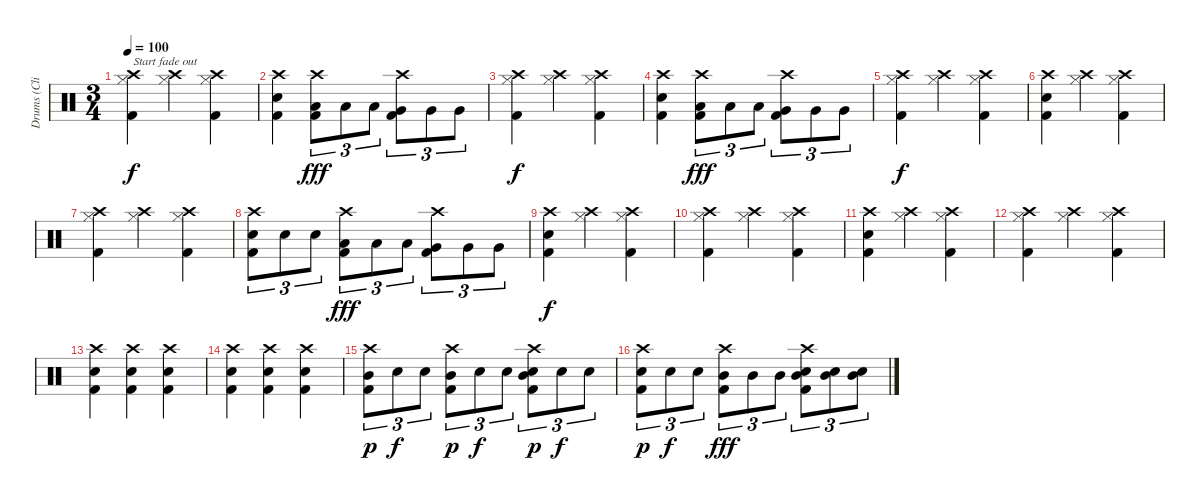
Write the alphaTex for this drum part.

\track ("Drums (Clive Bunker)" "Drums (Cli") {instrument percussion}
\staff {score}
\articulation defaults
\ts (3 4)
\tempo 100
\clef neutral
\ks c
("Crash high (hit)" "Hi-Hat (closed)" "Kick (hit) 2").4{txt "Start fade out" dy f volume 8} ("Crash high (hit)" "Hi-Hat (closed)").4 ("Crash high (hit)" "Hi-Hat (closed)" "Kick (hit) 2").4 |
("Crash high (hit)" "Snare (hit) 2" "Kick (hit) 2").4 ("Crash high (hit)" "Low Tom (hit)" "Kick (hit) 2").8{tu (3 2) dy fff} "Low Tom (hit)".8{tu (3 2)} "Low Tom (hit)".8{tu (3 2)} ("Crash high (hit)" "Very Low Tom (hit)" "Kick (hit) 2").8{tu (3 2)} "Very Low Tom (hit)".8{tu (3 2)} "Very Low Tom (hit)".8{tu (3 2)} |
("Crash high (hit)" "Hi-Hat (closed)" "Kick (hit) 2").4{dy f} ("Crash high (hit)" "Hi-Hat (closed)").4 ("Crash high (hit)" "Hi-Hat (closed)" "Kick (hit) 2").4 |
("Crash high (hit)" "Snare (hit) 2" "Kick (hit) 2").4 ("Crash high (hit)" "Low Tom (hit)" "Kick (hit) 2").8{tu (3 2) dy fff} "Low Tom (hit)".8{tu (3 2)} "Low Tom (hit)".8{tu (3 2)} ("Crash high (hit)" "Very Low Tom (hit)" "Kick (hit) 2").8{tu (3 2)} "Very Low Tom (hit)".8{tu (3 2)} "Very Low Tom (hit)".8{tu (3 2)} |
("Crash high (hit)" "Hi-Hat (closed)" "Kick (hit) 2").4{dy f} ("Crash high (hit)" "Hi-Hat (closed)").4 ("Crash high (hit)" "Hi-Hat (closed)" "Kick (hit) 2").4 |
("Crash high (hit)" "Snare (hit) 2" "Kick (hit) 2").4{volume 5} ("Crash high (hit)" "Hi-Hat (closed)").4 ("Crash high (hit)" "Hi-Hat (closed)" "Kick (hit) 2").4 |
("Crash high (hit)" "Hi-Hat (closed)" "Kick (hit) 2").4 ("Crash high (hit)" "Hi-Hat (closed)").4 ("Crash high (hit)" "Hi-Hat (closed)" "Kick (hit) 2").4 |
("Crash high (hit)" "Snare (hit) 2" "Kick (hit) 2").8{tu (3 2)} "Snare (hit) 2".8{tu (3 2)} "Snare (hit) 2".8{tu (3 2)} ("Crash high (hit)" "Low Tom (hit)" "Kick (hit) 2").8{tu (3 2) dy fff} "Low Tom (hit)".8{tu (3 2)} "Low Tom (hit)".8{tu (3 2)} ("Crash high (hit)" "Very Low Tom (hit)" "Kick (hit) 2").8{tu (3 2)} "Very Low Tom (hit)".8{tu (3 2)} "Very Low Tom (hit)".8{tu (3 2)} |
("Crash high (hit)" "Snare (hit) 2" "Kick (hit) 2").4{dy f} ("Crash high (hit)" "Hi-Hat (closed)").4 ("Crash high (hit)" "Hi-Hat (closed)" "Kick (hit) 2").4 |
("Crash high (hit)" "Hi-Hat (closed)" "Kick (hit) 2").4 ("Crash high (hit)" "Hi-Hat (closed)").4 ("Crash high (hit)" "Hi-Hat (closed)" "Kick (hit) 2").4 |
("Crash high (hit)" "Snare (hit) 2" "Kick (hit) 2").4{volume 0} ("Crash high (hit)" "Hi-Hat (closed)").4 ("Crash high (hit)" "Hi-Hat (closed)" "Kick (hit) 2").4 |
("Crash high (hit)" "Hi-Hat (closed)" "Kick (hit) 2").4 ("Crash high (hit)" "Hi-Hat (closed)").4 ("Crash high (hit)" "Hi-Hat (closed)" "Kick (hit) 2").4 |
("Crash high (hit)" "Snare (hit) 2" "Kick (hit) 2").4 ("Crash high (hit)" "Snare (hit) 2" "Kick (hit) 2").4 ("Crash high (hit)" "Snare (hit) 2" "Kick (hit) 2").4 |
("Crash high (hit)" "Snare (hit) 2" "Kick (hit) 2").4 ("Crash high (hit)" "Snare (hit) 2" "Kick (hit) 2").4 ("Crash high (hit)" "Snare (hit) 2" "Kick (hit) 2").4 |
("Crash high (hit)" "Mid Tom (hit)" "Kick (hit) 2").8{tu (3 2) dy p} "Snare (hit) 2".8{tu (3 2) dy f} "Snare (hit) 2".8{tu (3 2)} ("Crash high (hit)" "Mid Tom (hit)" "Kick (hit) 2").8{tu (3 2) dy p} "Snare (hit) 2".8{tu (3 2) dy f} "Snare (hit) 2".8{tu (3 2)} ("Crash high (hit)" "Snare (hit) 2" "Mid Tom (hit)" "Kick (hit) 2").8{tu (3 2) dy p} "Snare (hit) 2".8{tu (3 2) dy f} "Snare (hit) 2".8{tu (3 2)} |
("Crash high (hit)" "Snare (hit) 2" "Kick (hit) 2").8{tu (3 2) dy p} "Snare (hit) 2".8{tu (3 2) dy f} "Snare (hit) 2".8{tu (3 2)} ("Crash high (hit)" "Mid Tom (hit)" "Kick (hit) 2").8{tu (3 2) dy fff} "Mid Tom (hit)".8{tu (3 2)} "Mid Tom (hit)".8{tu (3 2)} ("Crash high (hit)" "Snare (hit) 2" "Mid Tom (hit)" "Kick (hit) 2").8{tu (3 2)} ("Snare (hit) 2" "Mid Tom (hit)").8{tu (3 2)} ("Snare (hit) 2" "Mid Tom (hit)").8{tu (3 2)}
